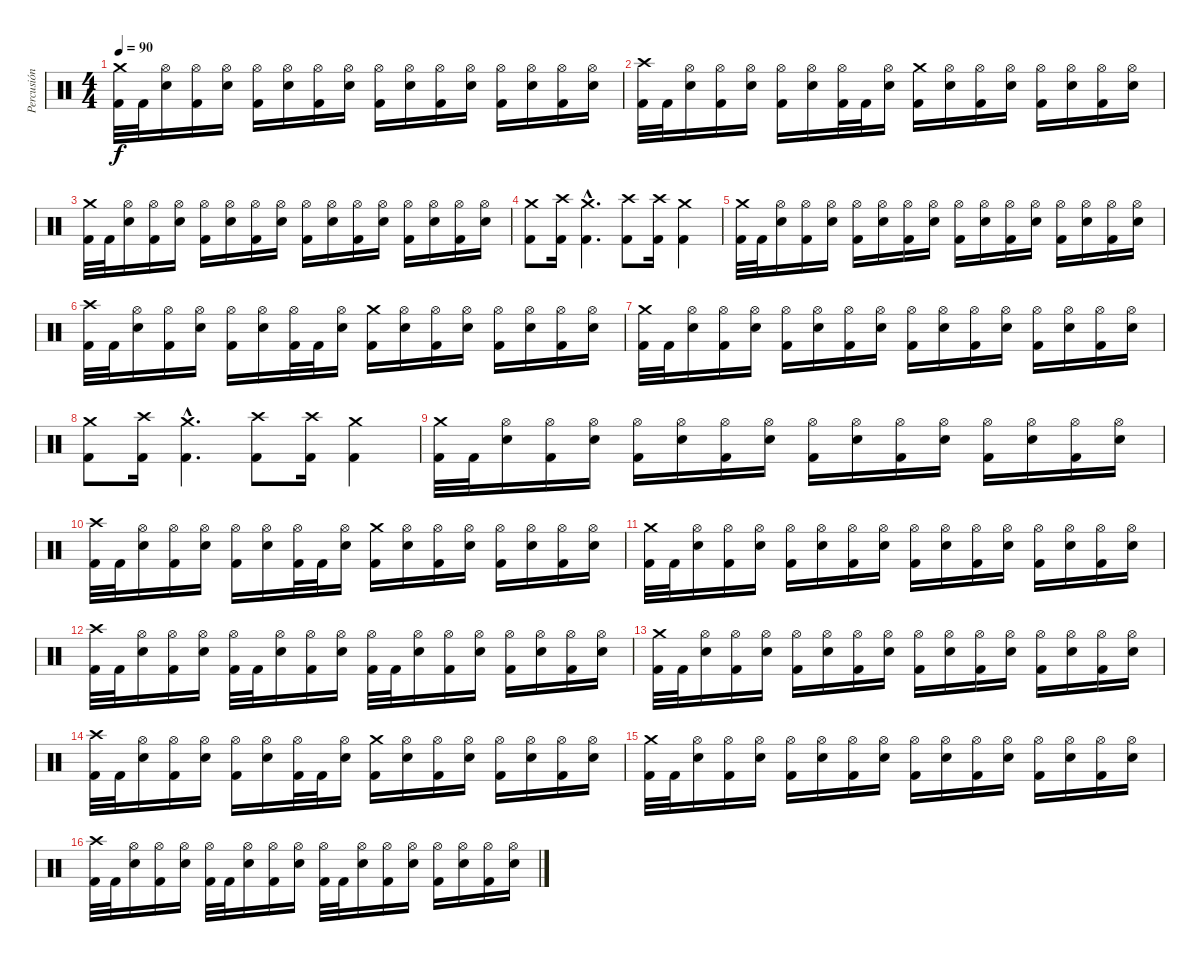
\track ("Percusión" "Percusión") {instrument percussion}
\staff {score}
\articulation defaults
\ts (4 4)
\tempo 90
\clef neutral
\ks c
("Crash medium (hit)" "Kick (hit) 2").32{dy f} "Kick (hit) 2".32 ("Hi-Hat (open)" "Snare (hit) 2").16 ("Hi-Hat (open)" "Kick (hit) 2").16 ("Hi-Hat (open)" "Snare (hit) 2").16 ("Hi-Hat (open)" "Kick (hit) 2").16 ("Hi-Hat (open)" "Snare (hit) 2").16 ("Hi-Hat (open)" "Kick (hit) 2").16 ("Hi-Hat (open)" "Snare (hit) 2").16 ("Hi-Hat (open)" "Kick (hit) 2").16 ("Hi-Hat (open)" "Snare (hit) 2").16 ("Hi-Hat (open)" "Kick (hit) 2").16 ("Hi-Hat (open)" "Snare (hit) 2").16 ("Hi-Hat (open)" "Kick (hit) 2").16 ("Hi-Hat (open)" "Snare (hit) 2").16 ("Hi-Hat (open)" "Kick (hit) 2").16 ("Hi-Hat (open)" "Snare (hit) 2").16 |
("Crash high (hit)" "Kick (hit) 2").32 "Kick (hit) 2".32 ("Hi-Hat (open)" "Snare (hit) 2").16 ("Hi-Hat (open)" "Kick (hit) 2").16 ("Hi-Hat (open)" "Snare (hit) 2").16 ("Hi-Hat (open)" "Kick (hit) 2").16 ("Hi-Hat (open)" "Snare (hit) 2").16 ("Hi-Hat (open)" "Kick (hit) 2").32 "Kick (hit) 2".32 ("Hi-Hat (open)" "Snare (hit) 2").16 ("Crash medium (hit)" "Kick (hit) 2").16 ("Hi-Hat (open)" "Snare (hit) 2").16 ("Hi-Hat (open)" "Kick (hit) 2").16 ("Hi-Hat (open)" "Snare (hit) 2").16 ("Hi-Hat (open)" "Kick (hit) 2").16 ("Hi-Hat (open)" "Snare (hit) 2").16 ("Hi-Hat (open)" "Kick (hit) 2").16 ("Hi-Hat (open)" "Snare (hit) 2").16 |
("Crash medium (hit)" "Kick (hit) 2").32 "Kick (hit) 2".32 ("Hi-Hat (open)" "Snare (hit) 2").16 ("Hi-Hat (open)" "Kick (hit) 2").16 ("Hi-Hat (open)" "Snare (hit) 2").16 ("Hi-Hat (open)" "Kick (hit) 2").16 ("Hi-Hat (open)" "Snare (hit) 2").16 ("Hi-Hat (open)" "Kick (hit) 2").16 ("Hi-Hat (open)" "Snare (hit) 2").16 ("Hi-Hat (open)" "Kick (hit) 2").16 ("Hi-Hat (open)" "Snare (hit) 2").16 ("Hi-Hat (open)" "Kick (hit) 2").16 ("Hi-Hat (open)" "Snare (hit) 2").16 ("Hi-Hat (open)" "Kick (hit) 2").16 ("Hi-Hat (open)" "Snare (hit) 2").16 ("Hi-Hat (open)" "Kick (hit) 2").16 ("Hi-Hat (open)" "Snare (hit) 2").16 |
("Crash medium (hit)" "Kick (hit) 2").8 ("Crash high (hit)" "Kick (hit) 2").16 ("Crash medium (hit)"{hac} "Kick (hit) 2"{hac}).4{d} ("Crash high (hit)" "Kick (hit) 2").8 ("Crash high (hit)" "Kick (hit) 2").16 ("Crash medium (hit)" "Kick (hit) 2").4 |
("Crash medium (hit)" "Kick (hit) 2").32 "Kick (hit) 2".32 ("Hi-Hat (open)" "Snare (hit) 2").16 ("Hi-Hat (open)" "Kick (hit) 2").16 ("Hi-Hat (open)" "Snare (hit) 2").16 ("Hi-Hat (open)" "Kick (hit) 2").16 ("Hi-Hat (open)" "Snare (hit) 2").16 ("Hi-Hat (open)" "Kick (hit) 2").16 ("Hi-Hat (open)" "Snare (hit) 2").16 ("Hi-Hat (open)" "Kick (hit) 2").16 ("Hi-Hat (open)" "Snare (hit) 2").16 ("Hi-Hat (open)" "Kick (hit) 2").16 ("Hi-Hat (open)" "Snare (hit) 2").16 ("Hi-Hat (open)" "Kick (hit) 2").16 ("Hi-Hat (open)" "Snare (hit) 2").16 ("Hi-Hat (open)" "Kick (hit) 2").16 ("Hi-Hat (open)" "Snare (hit) 2").16 |
("Crash high (hit)" "Kick (hit) 2").32 "Kick (hit) 2".32 ("Hi-Hat (open)" "Snare (hit) 2").16 ("Hi-Hat (open)" "Kick (hit) 2").16 ("Hi-Hat (open)" "Snare (hit) 2").16 ("Hi-Hat (open)" "Kick (hit) 2").16 ("Hi-Hat (open)" "Snare (hit) 2").16 ("Hi-Hat (open)" "Kick (hit) 2").32 "Kick (hit) 2".32 ("Hi-Hat (open)" "Snare (hit) 2").16 ("Crash medium (hit)" "Kick (hit) 2").16 ("Hi-Hat (open)" "Snare (hit) 2").16 ("Hi-Hat (open)" "Kick (hit) 2").16 ("Hi-Hat (open)" "Snare (hit) 2").16 ("Hi-Hat (open)" "Kick (hit) 2").16 ("Hi-Hat (open)" "Snare (hit) 2").16 ("Hi-Hat (open)" "Kick (hit) 2").16 ("Hi-Hat (open)" "Snare (hit) 2").16 |
("Crash medium (hit)" "Kick (hit) 2").32 "Kick (hit) 2".32 ("Hi-Hat (open)" "Snare (hit) 2").16 ("Hi-Hat (open)" "Kick (hit) 2").16 ("Hi-Hat (open)" "Snare (hit) 2").16 ("Hi-Hat (open)" "Kick (hit) 2").16 ("Hi-Hat (open)" "Snare (hit) 2").16 ("Hi-Hat (open)" "Kick (hit) 2").16 ("Hi-Hat (open)" "Snare (hit) 2").16 ("Hi-Hat (open)" "Kick (hit) 2").16 ("Hi-Hat (open)" "Snare (hit) 2").16 ("Hi-Hat (open)" "Kick (hit) 2").16 ("Hi-Hat (open)" "Snare (hit) 2").16 ("Hi-Hat (open)" "Kick (hit) 2").16 ("Hi-Hat (open)" "Snare (hit) 2").16 ("Hi-Hat (open)" "Kick (hit) 2").16 ("Hi-Hat (open)" "Snare (hit) 2").16 |
("Crash medium (hit)" "Kick (hit) 2").8 ("Crash high (hit)" "Kick (hit) 2").16 ("Crash medium (hit)"{hac} "Kick (hit) 2"{hac}).4{d} ("Crash high (hit)" "Kick (hit) 2").8 ("Crash high (hit)" "Kick (hit) 2").16 ("Crash medium (hit)" "Kick (hit) 2").4 |
("Crash medium (hit)" "Kick (hit) 2").32 "Kick (hit) 2".32 ("Hi-Hat (open)" "Snare (hit) 2").16 ("Hi-Hat (open)" "Kick (hit) 2").16 ("Hi-Hat (open)" "Snare (hit) 2").16 ("Hi-Hat (open)" "Kick (hit) 2").16 ("Hi-Hat (open)" "Snare (hit) 2").16 ("Hi-Hat (open)" "Kick (hit) 2").16 ("Hi-Hat (open)" "Snare (hit) 2").16 ("Hi-Hat (open)" "Kick (hit) 2").16 ("Hi-Hat (open)" "Snare (hit) 2").16 ("Hi-Hat (open)" "Kick (hit) 2").16 ("Hi-Hat (open)" "Snare (hit) 2").16 ("Hi-Hat (open)" "Kick (hit) 2").16 ("Hi-Hat (open)" "Snare (hit) 2").16 ("Hi-Hat (open)" "Kick (hit) 2").16 ("Hi-Hat (open)" "Snare (hit) 2").16 |
("Crash high (hit)" "Kick (hit) 2").32 "Kick (hit) 2".32 ("Hi-Hat (open)" "Snare (hit) 2").16 ("Hi-Hat (open)" "Kick (hit) 2").16 ("Hi-Hat (open)" "Snare (hit) 2").16 ("Hi-Hat (open)" "Kick (hit) 2").16 ("Hi-Hat (open)" "Snare (hit) 2").16 ("Hi-Hat (open)" "Kick (hit) 2").32 "Kick (hit) 2".32 ("Hi-Hat (open)" "Snare (hit) 2").16 ("Crash medium (hit)" "Kick (hit) 2").16 ("Hi-Hat (open)" "Snare (hit) 2").16 ("Hi-Hat (open)" "Kick (hit) 2").16 ("Hi-Hat (open)" "Snare (hit) 2").16 ("Hi-Hat (open)" "Kick (hit) 2").16 ("Hi-Hat (open)" "Snare (hit) 2").16 ("Hi-Hat (open)" "Kick (hit) 2").16 ("Hi-Hat (open)" "Snare (hit) 2").16 |
("Crash medium (hit)" "Kick (hit) 2").32 "Kick (hit) 2".32 ("Hi-Hat (open)" "Snare (hit) 2").16 ("Hi-Hat (open)" "Kick (hit) 2").16 ("Hi-Hat (open)" "Snare (hit) 2").16 ("Hi-Hat (open)" "Kick (hit) 2").16 ("Hi-Hat (open)" "Snare (hit) 2").16 ("Hi-Hat (open)" "Kick (hit) 2").16 ("Hi-Hat (open)" "Snare (hit) 2").16 ("Hi-Hat (open)" "Kick (hit) 2").16 ("Hi-Hat (open)" "Snare (hit) 2").16 ("Hi-Hat (open)" "Kick (hit) 2").16 ("Hi-Hat (open)" "Snare (hit) 2").16 ("Hi-Hat (open)" "Kick (hit) 2").16 ("Hi-Hat (open)" "Snare (hit) 2").16 ("Hi-Hat (open)" "Kick (hit) 2").16 ("Hi-Hat (open)" "Snare (hit) 2").16 |
("Crash high (hit)" "Kick (hit) 2").32 "Kick (hit) 2".32 ("Hi-Hat (open)" "Snare (hit) 2").16 ("Hi-Hat (open)" "Kick (hit) 2").16 ("Hi-Hat (open)" "Snare (hit) 2").16 ("Hi-Hat (open)" "Kick (hit) 2").32 "Kick (hit) 2".32 ("Hi-Hat (open)" "Snare (hit) 2").16 ("Hi-Hat (open)" "Kick (hit) 2").16 ("Hi-Hat (open)" "Snare (hit) 2").16 ("Hi-Hat (open)" "Kick (hit) 2").32 "Kick (hit) 2".32 ("Hi-Hat (open)" "Snare (hit) 2").16 ("Hi-Hat (open)" "Kick (hit) 2").16 ("Hi-Hat (open)" "Snare (hit) 2").16 ("Hi-Hat (open)" "Kick (hit) 2").16 ("Hi-Hat (open)" "Snare (hit) 2").16 ("Hi-Hat (open)" "Kick (hit) 2").16 ("Hi-Hat (open)" "Snare (hit) 2").16 |
("Crash medium (hit)" "Kick (hit) 2").32 "Kick (hit) 2".32 ("Hi-Hat (open)" "Snare (hit) 2").16 ("Hi-Hat (open)" "Kick (hit) 2").16 ("Hi-Hat (open)" "Snare (hit) 2").16 ("Hi-Hat (open)" "Kick (hit) 2").16 ("Hi-Hat (open)" "Snare (hit) 2").16 ("Hi-Hat (open)" "Kick (hit) 2").16 ("Hi-Hat (open)" "Snare (hit) 2").16 ("Hi-Hat (open)" "Kick (hit) 2").16 ("Hi-Hat (open)" "Snare (hit) 2").16 ("Hi-Hat (open)" "Kick (hit) 2").16 ("Hi-Hat (open)" "Snare (hit) 2").16 ("Hi-Hat (open)" "Kick (hit) 2").16 ("Hi-Hat (open)" "Snare (hit) 2").16 ("Hi-Hat (open)" "Kick (hit) 2").16 ("Hi-Hat (open)" "Snare (hit) 2").16 |
("Crash high (hit)" "Kick (hit) 2").32 "Kick (hit) 2".32 ("Hi-Hat (open)" "Snare (hit) 2").16 ("Hi-Hat (open)" "Kick (hit) 2").16 ("Hi-Hat (open)" "Snare (hit) 2").16 ("Hi-Hat (open)" "Kick (hit) 2").16 ("Hi-Hat (open)" "Snare (hit) 2").16 ("Hi-Hat (open)" "Kick (hit) 2").32 "Kick (hit) 2".32 ("Hi-Hat (open)" "Snare (hit) 2").16 ("Crash medium (hit)" "Kick (hit) 2").16 ("Hi-Hat (open)" "Snare (hit) 2").16 ("Hi-Hat (open)" "Kick (hit) 2").16 ("Hi-Hat (open)" "Snare (hit) 2").16 ("Hi-Hat (open)" "Kick (hit) 2").16 ("Hi-Hat (open)" "Snare (hit) 2").16 ("Hi-Hat (open)" "Kick (hit) 2").16 ("Hi-Hat (open)" "Snare (hit) 2").16 |
("Crash medium (hit)" "Kick (hit) 2").32 "Kick (hit) 2".32 ("Hi-Hat (open)" "Snare (hit) 2").16 ("Hi-Hat (open)" "Kick (hit) 2").16 ("Hi-Hat (open)" "Snare (hit) 2").16 ("Hi-Hat (open)" "Kick (hit) 2").16 ("Hi-Hat (open)" "Snare (hit) 2").16 ("Hi-Hat (open)" "Kick (hit) 2").16 ("Hi-Hat (open)" "Snare (hit) 2").16 ("Hi-Hat (open)" "Kick (hit) 2").16 ("Hi-Hat (open)" "Snare (hit) 2").16 ("Hi-Hat (open)" "Kick (hit) 2").16 ("Hi-Hat (open)" "Snare (hit) 2").16 ("Hi-Hat (open)" "Kick (hit) 2").16 ("Hi-Hat (open)" "Snare (hit) 2").16 ("Hi-Hat (open)" "Kick (hit) 2").16 ("Hi-Hat (open)" "Snare (hit) 2").16 |
("Crash high (hit)" "Kick (hit) 2").32 "Kick (hit) 2".32 ("Hi-Hat (open)" "Snare (hit) 2").16 ("Hi-Hat (open)" "Kick (hit) 2").16 ("Hi-Hat (open)" "Snare (hit) 2").16 ("Hi-Hat (open)" "Kick (hit) 2").32 "Kick (hit) 2".32 ("Hi-Hat (open)" "Snare (hit) 2").16 ("Hi-Hat (open)" "Kick (hit) 2").16 ("Hi-Hat (open)" "Snare (hit) 2").16 ("Hi-Hat (open)" "Kick (hit) 2").32 "Kick (hit) 2".32 ("Hi-Hat (open)" "Snare (hit) 2").16 ("Hi-Hat (open)" "Kick (hit) 2").16 ("Hi-Hat (open)" "Snare (hit) 2").16 ("Hi-Hat (open)" "Kick (hit) 2").16 ("Hi-Hat (open)" "Snare (hit) 2").16 ("Hi-Hat (open)" "Kick (hit) 2").16 ("Hi-Hat (open)" "Snare (hit) 2").16
